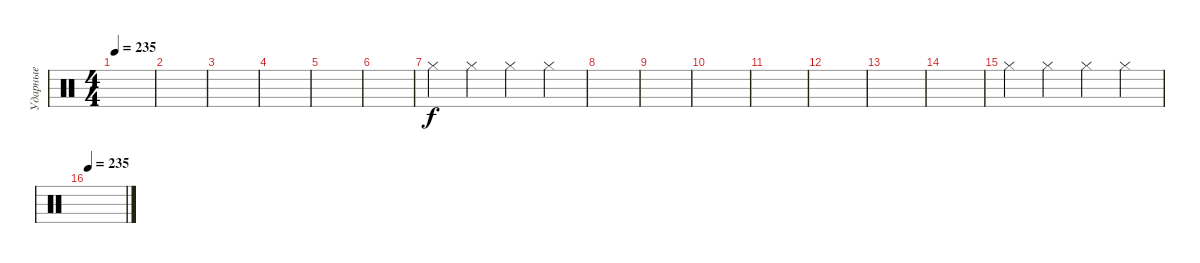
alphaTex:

\track ("Ударные" "Ударные") {instrument percussion}
\staff {score}
\articulation defaults
\ts (4 4)
\tempo 235
\clef neutral
\ks c
|
|
|
|
|
|
"Hi-Hat (closed)".4 "Hi-Hat (closed)".4 "Hi-Hat (closed)".4 "Hi-Hat (closed)".4 |
|
|
|
|
|
|
|
"Hi-Hat (closed)".4 "Hi-Hat (closed)".4 "Hi-Hat (closed)".4 "Hi-Hat (closed)".4 |
\tempo 235
